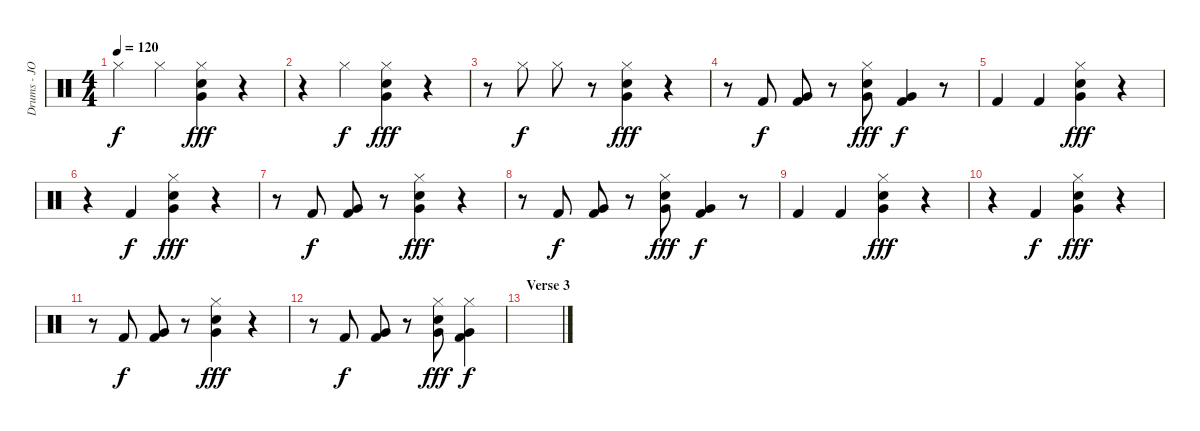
\track ("Drums - JOHN" "Drums - JO") {instrument percussion}
\staff {score}
\articulation defaults
\ts (4 4)
\tempo 120
\clef neutral
\ks c "Hi-Hat (closed)".4{dy f} "Hi-Hat (closed)".4
("Hi-Hat (closed)" "Very Low Tom (hit)" "Snare (hit) 2").4{dy fff} r.4 |
r.4 "Hi-Hat (closed)".4{dy f} ("Hi-Hat (closed)" "Very Low Tom (hit)" "Snare (hit) 2").4{dy fff} r.4 |
r.8 "Hi-Hat (closed)".8{dy f} "Hi-Hat (closed)".8 r.8 ("Hi-Hat (closed)" "Very Low Tom (hit)" "Snare (hit) 2").4{dy fff} r.4 |
r.8 "Kick (hit) 2".8{dy f} ("Very Low Tom (hit)" "Kick (hit) 2").8 r.8 ("Hi-Hat (closed)" "Very Low Tom (hit)" "Snare (hit) 2").8{dy fff} ("Very Low Tom (hit)" "Kick (hit) 2").4{dy f} r.8 |
"Kick (hit) 2".4 "Kick (hit) 2".4 ("Hi-Hat (closed)" "Very Low Tom (hit)" "Snare (hit) 2").4{dy fff} r.4 |
r.4 "Kick (hit) 2".4{dy f} ("Hi-Hat (closed)" "Very Low Tom (hit)" "Snare (hit) 2").4{dy fff} r.4 |
r.8 "Kick (hit) 2".8{dy f} ("Very Low Tom (hit)" "Kick (hit) 2").8 r.8 ("Hi-Hat (closed)" "Very Low Tom (hit)" "Snare (hit) 2").4{dy fff} r.4 |
r.8 "Kick (hit) 2".8{dy f} ("Very Low Tom (hit)" "Kick (hit) 2").8 r.8 ("Hi-Hat (closed)" "Very Low Tom (hit)" "Snare (hit) 2").8{dy fff} ("Very Low Tom (hit)" "Kick (hit) 2").4{dy f} r.8 |
"Kick (hit) 2".4 "Kick (hit) 2".4 ("Hi-Hat (closed)" "Very Low Tom (hit)" "Snare (hit) 2").4{dy fff} r.4 |
r.4 "Kick (hit) 2".4{dy f} ("Hi-Hat (closed)" "Very Low Tom (hit)" "Snare (hit) 2").4{dy fff} r.4 |
r.8 "Kick (hit) 2".8{dy f} ("Very Low Tom (hit)" "Kick (hit) 2").8 r.8 ("Hi-Hat (closed)" "Very Low Tom (hit)" "Snare (hit) 2").4{dy fff} r.4 |
r.8 "Kick (hit) 2".8{dy f} ("Very Low Tom (hit)" "Kick (hit) 2").8 r.8 ("Hi-Hat (closed)" "Very Low Tom (hit)" "Snare (hit) 2").8{dy fff} ("Hi-Hat (closed)" "Very Low Tom (hit)" "Kick (hit) 2").4{dy f} |
\section ("" "Verse 3")
